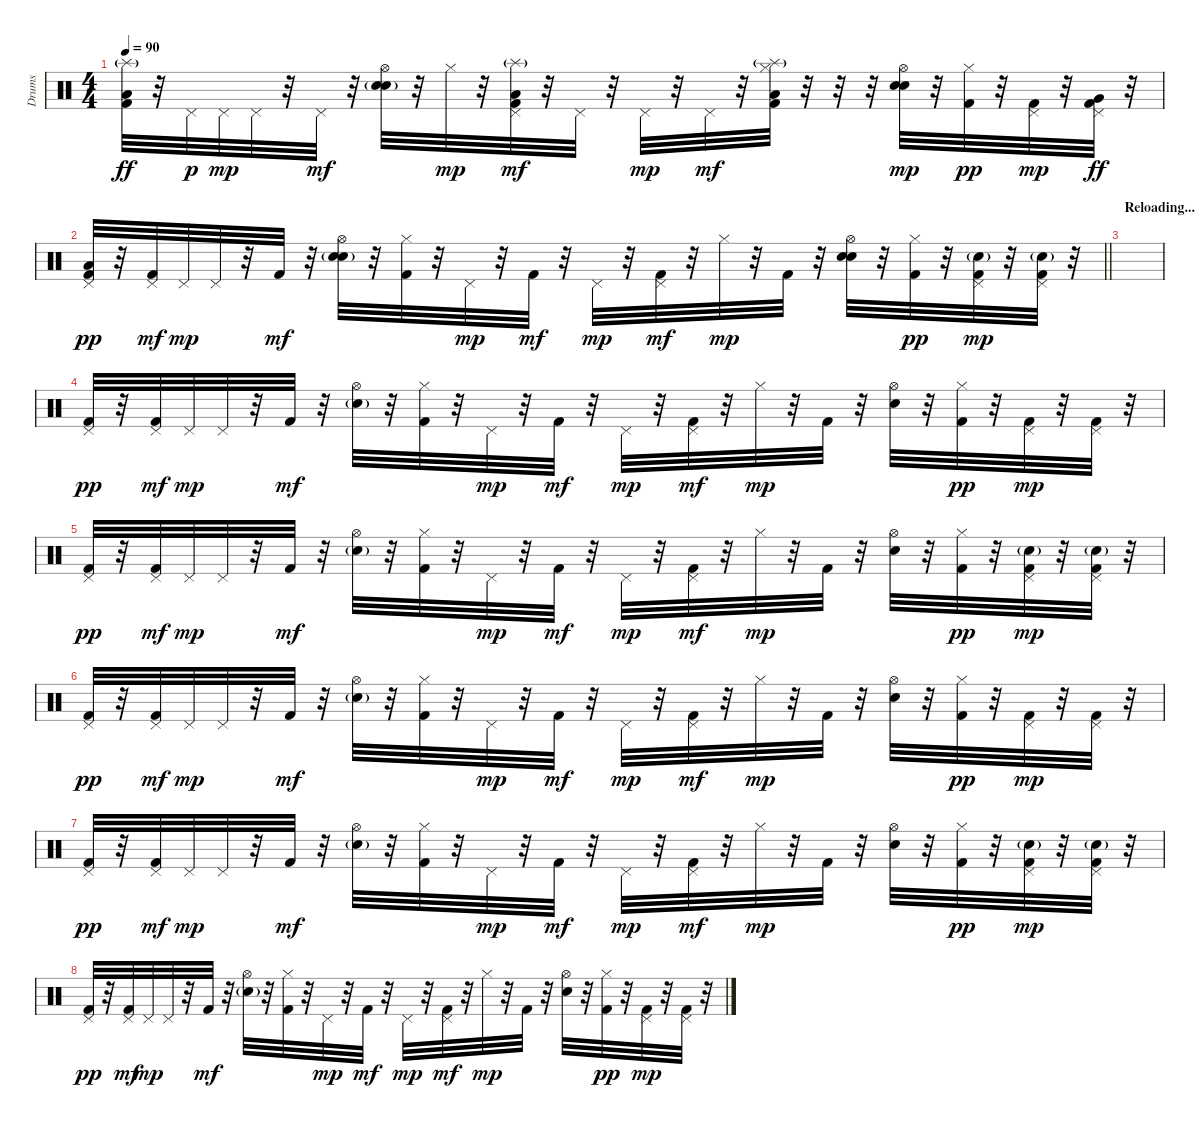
\track ("Drums" "Drums") {instrument percussion}
\staff {score}
\articulation defaults
\ts (4 4)
\tempo 90
\clef neutral
\ks c
("Splash (hit)"{g} "Low Floor Tom (hit)" "Kick (hit) 2").32{dy ff} r.32 "Pedal Hi-Hat (hit)".32{dy p} "Pedal Hi-Hat (hit)".32{dy mp} "Pedal Hi-Hat (hit)".32 r.32 "Pedal Hi-Hat (hit)".32{dy mf} r.32 ("Electric Snare (hit)" "Hi-Hat (open)" "Snare (hit) 2"{g}).32 r.32 "Hi-Hat (closed)".32{dy mp} r.32 ("Splash (hit)"{g} "Low Floor Tom (hit)" "Pedal Hi-Hat (hit)" "Kick (hit) 2").32{dy mf} r.32 "Pedal Hi-Hat (hit)".32 r.32 "Pedal Hi-Hat (hit)".32{dy mp} r.32 "Pedal Hi-Hat (hit)".32{dy mf} r.32 ("Splash (hit)"{g} "Low Floor Tom (hit)" "Hi-Hat (closed)" "Kick (hit) 2").32 r.32 r.32 r.32 ("Electric Snare (hit)" "Hi-Hat (open)" "Snare (hit) 2").32{dy mp} r.32 ("Hi-Hat (closed)" "Kick (hit) 2").32{dy pp} r.32 ("Pedal Hi-Hat (hit)" "Kick (hit) 2").32{dy mp} r.32 ("Very Low Tom (hit)" "Pedal Hi-Hat (hit)" "Kick (hit) 2").32{dy ff} r.32 |
\barLineRight lightlight
("Low Floor Tom (hit)" "Pedal Hi-Hat (hit)" "Kick (hit) 2").32{dy pp} r.32 ("Pedal Hi-Hat (hit)" "Kick (hit) 2").32{dy mf} "Pedal Hi-Hat (hit)".32{dy mp} "Pedal Hi-Hat (hit)".32 r.32 "Kick (hit) 2".32{dy mf} r.32 ("Electric Snare (hit)" "Hi-Hat (open)" "Snare (hit) 2"{g}).32 r.32 ("Hi-Hat (closed)" "Kick (hit) 2").32 r.32 "Pedal Hi-Hat (hit)".32{dy mp} r.32 "Kick (hit) 2".32{dy mf} r.32 "Pedal Hi-Hat (hit)".32{dy mp} r.32 ("Pedal Hi-Hat (hit)" "Kick (hit) 2").32{dy mf} r.32 "Hi-Hat (closed)".32{dy mp} r.32 "Kick (hit) 2".32 r.32 ("Electric Snare (hit)" "Hi-Hat (open)" "Snare (hit) 2").32 r.32 ("Hi-Hat (closed)" "Kick (hit) 2").32{dy pp} r.32 ("Pedal Hi-Hat (hit)" "Snare (hit) 2"{g} "Kick (hit) 2").32{dy mp} r.32 ("Pedal Hi-Hat (hit)" "Snare (hit) 2"{g} "Kick (hit) 2").32 r.32 |
\section ("" "Reloading...")
|
("Pedal Hi-Hat (hit)" "Kick (hit) 2").32{dy pp} r.32 ("Pedal Hi-Hat (hit)" "Kick (hit) 2").32{dy mf} "Pedal Hi-Hat (hit)".32{dy mp} "Pedal Hi-Hat (hit)".32 r.32 "Kick (hit) 2".32{dy mf} r.32 ("Hi-Hat (open)" "Snare (hit) 2"{g}).32 r.32 ("Hi-Hat (closed)" "Kick (hit) 2").32 r.32 "Pedal Hi-Hat (hit)".32{dy mp} r.32 "Kick (hit) 2".32{dy mf} r.32 "Pedal Hi-Hat (hit)".32{dy mp} r.32 ("Pedal Hi-Hat (hit)" "Kick (hit) 2").32{dy mf} r.32 "Hi-Hat (closed)".32{dy mp} r.32 "Kick (hit) 2".32 r.32 ("Hi-Hat (open)" "Snare (hit) 2").32 r.32 ("Hi-Hat (closed)" "Kick (hit) 2").32{dy pp} r.32 ("Pedal Hi-Hat (hit)" "Kick (hit) 2").32{dy mp} r.32 ("Pedal Hi-Hat (hit)" "Kick (hit) 2").32 r.32 |
("Pedal Hi-Hat (hit)" "Kick (hit) 2").32{dy pp} r.32 ("Pedal Hi-Hat (hit)" "Kick (hit) 2").32{dy mf} "Pedal Hi-Hat (hit)".32{dy mp} "Pedal Hi-Hat (hit)".32 r.32 "Kick (hit) 2".32{dy mf} r.32 ("Hi-Hat (open)" "Snare (hit) 2"{g}).32 r.32 ("Hi-Hat (closed)" "Kick (hit) 2").32 r.32 "Pedal Hi-Hat (hit)".32{dy mp} r.32 "Kick (hit) 2".32{dy mf} r.32 "Pedal Hi-Hat (hit)".32{dy mp} r.32 ("Pedal Hi-Hat (hit)" "Kick (hit) 2").32{dy mf} r.32 "Hi-Hat (closed)".32{dy mp} r.32 "Kick (hit) 2".32 r.32 ("Hi-Hat (open)" "Snare (hit) 2").32 r.32 ("Hi-Hat (closed)" "Kick (hit) 2").32{dy pp} r.32 ("Pedal Hi-Hat (hit)" "Snare (hit) 2"{g} "Kick (hit) 2").32{dy mp} r.32 ("Pedal Hi-Hat (hit)" "Snare (hit) 2"{g} "Kick (hit) 2").32 r.32 |
("Pedal Hi-Hat (hit)" "Kick (hit) 2").32{dy pp} r.32 ("Pedal Hi-Hat (hit)" "Kick (hit) 2").32{dy mf} "Pedal Hi-Hat (hit)".32{dy mp} "Pedal Hi-Hat (hit)".32 r.32 "Kick (hit) 2".32{dy mf} r.32 ("Hi-Hat (open)" "Snare (hit) 2"{g}).32 r.32 ("Hi-Hat (closed)" "Kick (hit) 2").32 r.32 "Pedal Hi-Hat (hit)".32{dy mp} r.32 "Kick (hit) 2".32{dy mf} r.32 "Pedal Hi-Hat (hit)".32{dy mp} r.32 ("Pedal Hi-Hat (hit)" "Kick (hit) 2").32{dy mf} r.32 "Hi-Hat (closed)".32{dy mp} r.32 "Kick (hit) 2".32 r.32 ("Hi-Hat (open)" "Snare (hit) 2").32 r.32 ("Hi-Hat (closed)" "Kick (hit) 2").32{dy pp} r.32 ("Pedal Hi-Hat (hit)" "Kick (hit) 2").32{dy mp} r.32 ("Pedal Hi-Hat (hit)" "Kick (hit) 2").32 r.32 |
("Pedal Hi-Hat (hit)" "Kick (hit) 2").32{dy pp} r.32 ("Pedal Hi-Hat (hit)" "Kick (hit) 2").32{dy mf} "Pedal Hi-Hat (hit)".32{dy mp} "Pedal Hi-Hat (hit)".32 r.32 "Kick (hit) 2".32{dy mf} r.32 ("Hi-Hat (open)" "Snare (hit) 2"{g}).32 r.32 ("Hi-Hat (closed)" "Kick (hit) 2").32 r.32 "Pedal Hi-Hat (hit)".32{dy mp} r.32 "Kick (hit) 2".32{dy mf} r.32 "Pedal Hi-Hat (hit)".32{dy mp} r.32 ("Pedal Hi-Hat (hit)" "Kick (hit) 2").32{dy mf} r.32 "Hi-Hat (closed)".32{dy mp} r.32 "Kick (hit) 2".32 r.32 ("Hi-Hat (open)" "Snare (hit) 2").32 r.32 ("Hi-Hat (closed)" "Kick (hit) 2").32{dy pp} r.32 ("Pedal Hi-Hat (hit)" "Snare (hit) 2"{g} "Kick (hit) 2").32{dy mp} r.32 ("Pedal Hi-Hat (hit)" "Snare (hit) 2"{g} "Kick (hit) 2").32 r.32 |
("Pedal Hi-Hat (hit)" "Kick (hit) 2").32{dy pp} r.32 ("Pedal Hi-Hat (hit)" "Kick (hit) 2").32{dy mf} "Pedal Hi-Hat (hit)".32{dy mp} "Pedal Hi-Hat (hit)".32 r.32 "Kick (hit) 2".32{dy mf} r.32 ("Hi-Hat (open)" "Snare (hit) 2"{g}).32 r.32 ("Hi-Hat (closed)" "Kick (hit) 2").32 r.32 "Pedal Hi-Hat (hit)".32{dy mp} r.32 "Kick (hit) 2".32{dy mf} r.32 "Pedal Hi-Hat (hit)".32{dy mp} r.32 ("Pedal Hi-Hat (hit)" "Kick (hit) 2").32{dy mf} r.32 "Hi-Hat (closed)".32{dy mp} r.32 "Kick (hit) 2".32 r.32 ("Hi-Hat (open)" "Snare (hit) 2").32 r.32 ("Hi-Hat (closed)" "Kick (hit) 2").32{dy pp} r.32 ("Pedal Hi-Hat (hit)" "Kick (hit) 2").32{dy mp} r.32 ("Pedal Hi-Hat (hit)" "Kick (hit) 2").32 r.32
